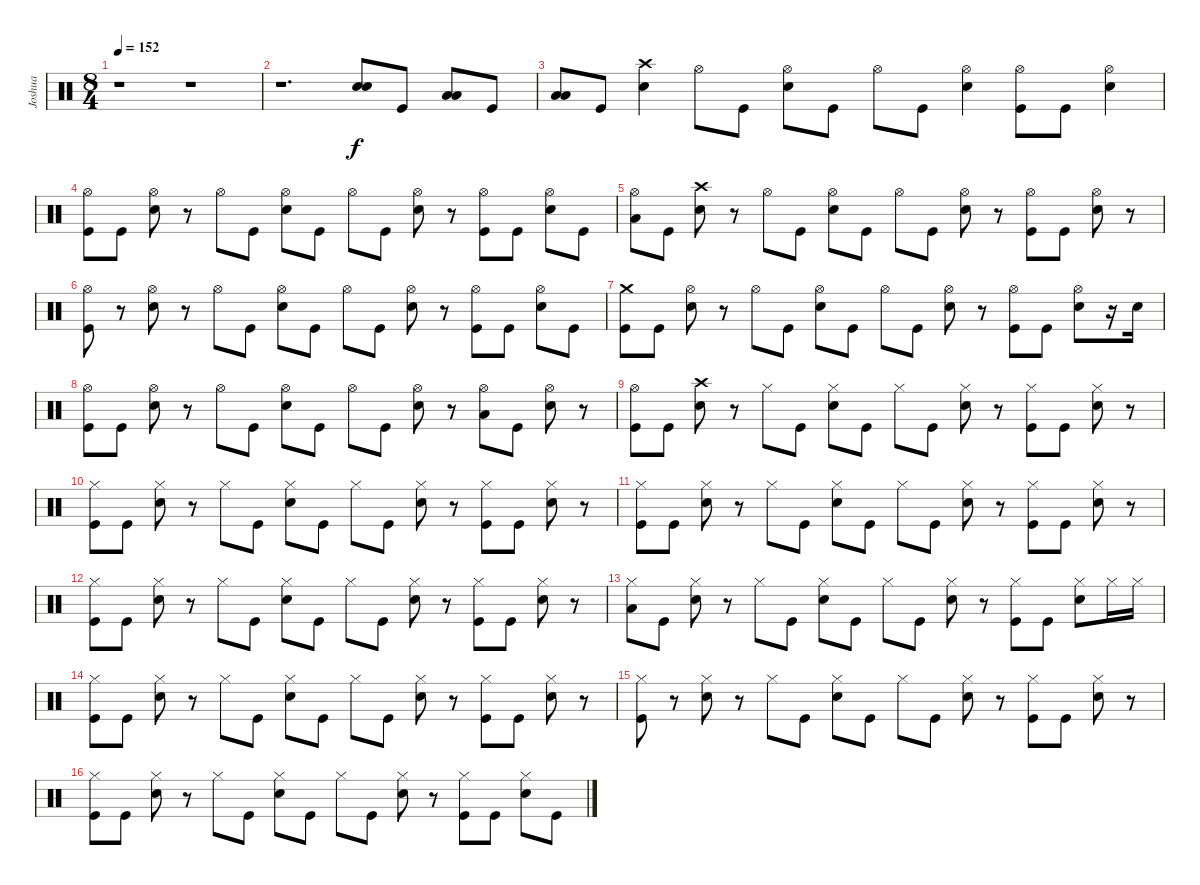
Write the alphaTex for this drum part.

\track ("Joshua" "Joshua") {instrument percussion}
\staff {score}
\articulation defaults
\ts (8 4)
\tempo 152
\clef neutral
\ks c
r.1{dy f} r.1 |
r.1{d} ("Electric Snare (hit)" "Electric Snare (hit)").8 "Kick (hit)".8 ("Low Tom (hit)" "Low Tom (hit)").8 "Kick (hit)".8 |
("Low Floor Tom (hit)" "Low Floor Tom (hit)").8 "Kick (hit)".8 ("Crash high (hit)" "Electric Snare (hit)").4 "Hi-Hat (open)".8 "Kick (hit)".8 ("Hi-Hat (open)" "Electric Snare (hit)").8 "Kick (hit)".8 "Hi-Hat (open)".8 "Kick (hit)".8 ("Hi-Hat (open)" "Electric Snare (hit)").4 ("Hi-Hat (open)" "Kick (hit)").8 "Kick (hit)".8 ("Hi-Hat (open)" "Electric Snare (hit)").4 |
("Hi-Hat (open)" "Kick (hit)").8 "Kick (hit)".8 ("Hi-Hat (open)" "Electric Snare (hit)").8 r.8 "Hi-Hat (open)".8 "Kick (hit)".8 ("Hi-Hat (open)" "Electric Snare (hit)").8 "Kick (hit)".8 "Hi-Hat (open)".8 "Kick (hit)".8 ("Hi-Hat (open)" "Electric Snare (hit)").8 r.8 ("Hi-Hat (open)" "Kick (hit)").8 "Kick (hit)".8 ("Hi-Hat (open)" "Electric Snare (hit)").8 "Kick (hit)".8 |
("Low Tom (hit)" "Hi-Hat (open)").8 "Kick (hit)".8 ("Crash high (hit)" "Electric Snare (hit)").8 r.8 "Hi-Hat (open)".8 "Kick (hit)".8 ("Hi-Hat (open)" "Electric Snare (hit)").8 "Kick (hit)".8 "Hi-Hat (open)".8 "Kick (hit)".8 ("Hi-Hat (open)" "Electric Snare (hit)").8 r.8 ("Hi-Hat (open)" "Kick (hit)").8 "Kick (hit)".8 ("Hi-Hat (open)" "Electric Snare (hit)").8 r.8 |
("Hi-Hat (open)" "Kick (hit)").8 r.8 ("Hi-Hat (open)" "Electric Snare (hit)").8 r.8 "Hi-Hat (open)".8 "Kick (hit)".8 ("Hi-Hat (open)" "Electric Snare (hit)").8 "Kick (hit)".8 "Hi-Hat (open)".8 "Kick (hit)".8 ("Hi-Hat (open)" "Electric Snare (hit)").8 r.8 ("Hi-Hat (open)" "Kick (hit)").8 "Kick (hit)".8 ("Hi-Hat (open)" "Electric Snare (hit)").8 "Kick (hit)".8 |
("Crash medium (hit)" "Kick (hit)").8 "Kick (hit)".8 ("Hi-Hat (open)" "Electric Snare (hit)").8 r.8 "Hi-Hat (open)".8 "Kick (hit)".8 ("Hi-Hat (open)" "Electric Snare (hit)").8 "Kick (hit)".8 "Hi-Hat (open)".8 "Kick (hit)".8 ("Hi-Hat (open)" "Electric Snare (hit)").8 r.8 ("Hi-Hat (open)" "Kick (hit)").8 "Kick (hit)".8 ("Hi-Hat (open)" "Electric Snare (hit)").8 r.16 "Electric Snare (hit)".16 |
("Hi-Hat (open)" "Kick (hit)").8 "Kick (hit)".8 ("Hi-Hat (open)" "Electric Snare (hit)").8 r.8 "Hi-Hat (open)".8 "Kick (hit)".8 ("Hi-Hat (open)" "Electric Snare (hit)").8 "Kick (hit)".8 "Hi-Hat (open)".8 "Kick (hit)".8 ("Hi-Hat (open)" "Electric Snare (hit)").8 r.8 ("Low Tom (hit)" "Hi-Hat (open)").8 "Kick (hit)".8 ("Hi-Hat (open)" "Electric Snare (hit)").8 r.8 |
("Hi-Hat (open)" "Kick (hit)").8 "Kick (hit)".8 ("Crash high (hit)" "Electric Snare (hit)").8 r.8 "Hi-Hat (closed)".8 "Kick (hit)".8 ("Hi-Hat (closed)" "Electric Snare (hit)").8 "Kick (hit)".8 "Hi-Hat (closed)".8 "Kick (hit)".8 ("Hi-Hat (closed)" "Electric Snare (hit)").8 r.8 ("Hi-Hat (closed)" "Kick (hit)").8 "Kick (hit)".8 ("Hi-Hat (closed)" "Electric Snare (hit)").8 r.8 |
("Hi-Hat (closed)" "Kick (hit)").8 "Kick (hit)".8 ("Hi-Hat (closed)" "Electric Snare (hit)").8 r.8 "Hi-Hat (closed)".8 "Kick (hit)".8 ("Hi-Hat (closed)" "Electric Snare (hit)").8 "Kick (hit)".8 "Hi-Hat (closed)".8 "Kick (hit)".8 ("Hi-Hat (closed)" "Electric Snare (hit)").8 r.8 ("Hi-Hat (closed)" "Kick (hit)").8 "Kick (hit)".8 ("Hi-Hat (closed)" "Electric Snare (hit)").8 r.8 |
("Hi-Hat (closed)" "Kick (hit)").8 "Kick (hit)".8 ("Hi-Hat (closed)" "Electric Snare (hit)").8 r.8 "Hi-Hat (closed)".8 "Kick (hit)".8 ("Hi-Hat (closed)" "Electric Snare (hit)").8 "Kick (hit)".8 "Hi-Hat (closed)".8 "Kick (hit)".8 ("Hi-Hat (closed)" "Electric Snare (hit)").8 r.8 ("Hi-Hat (closed)" "Kick (hit)").8 "Kick (hit)".8 ("Hi-Hat (closed)" "Electric Snare (hit)").8 r.8 |
("Hi-Hat (closed)" "Kick (hit)").8 "Kick (hit)".8 ("Hi-Hat (closed)" "Electric Snare (hit)").8 r.8 "Hi-Hat (closed)".8 "Kick (hit)".8 ("Hi-Hat (closed)" "Electric Snare (hit)").8 "Kick (hit)".8 "Hi-Hat (closed)".8 "Kick (hit)".8 ("Hi-Hat (closed)" "Electric Snare (hit)").8 r.8 ("Hi-Hat (closed)" "Kick (hit)").8 "Kick (hit)".8 ("Hi-Hat (closed)" "Electric Snare (hit)").8 r.8 |
("Low Tom (hit)" "Hi-Hat (closed)").8 "Kick (hit)".8 ("Hi-Hat (closed)" "Electric Snare (hit)").8 r.8 "Hi-Hat (closed)".8 "Kick (hit)".8 ("Hi-Hat (closed)" "Electric Snare (hit)").8 "Kick (hit)".8 "Hi-Hat (closed)".8 "Kick (hit)".8 ("Hi-Hat (closed)" "Electric Snare (hit)").8 r.8 ("Hi-Hat (closed)" "Kick (hit)").8 "Kick (hit)".8 ("Hi-Hat (closed)" "Electric Snare (hit)").8 "Hi-Hat (closed)".16 "Hi-Hat (closed)".16 |
("Hi-Hat (closed)" "Kick (hit)").8 "Kick (hit)".8 ("Hi-Hat (closed)" "Electric Snare (hit)").8 r.8 "Hi-Hat (closed)".8 "Kick (hit)".8 ("Hi-Hat (closed)" "Electric Snare (hit)").8 "Kick (hit)".8 "Hi-Hat (closed)".8 "Kick (hit)".8 ("Hi-Hat (closed)" "Electric Snare (hit)").8 r.8 ("Hi-Hat (closed)" "Kick (hit)").8 "Kick (hit)".8 ("Hi-Hat (closed)" "Electric Snare (hit)").8 r.8 |
("Hi-Hat (closed)" "Kick (hit)").8 r.8 ("Hi-Hat (closed)" "Electric Snare (hit)").8 r.8 "Hi-Hat (closed)".8 "Kick (hit)".8 ("Hi-Hat (closed)" "Electric Snare (hit)").8 "Kick (hit)".8 "Hi-Hat (closed)".8 "Kick (hit)".8 ("Hi-Hat (closed)" "Electric Snare (hit)").8 r.8 ("Hi-Hat (closed)" "Kick (hit)").8 "Kick (hit)".8 ("Hi-Hat (closed)" "Electric Snare (hit)").8 r.8 |
("Hi-Hat (closed)" "Kick (hit)").8 "Kick (hit)".8 ("Hi-Hat (closed)" "Electric Snare (hit)").8 r.8 "Hi-Hat (closed)".8 "Kick (hit)".8 ("Hi-Hat (closed)" "Electric Snare (hit)").8 "Kick (hit)".8 "Hi-Hat (closed)".8 "Kick (hit)".8 ("Hi-Hat (closed)" "Electric Snare (hit)").8 r.8 ("Hi-Hat (closed)" "Kick (hit)").8 "Kick (hit)".8 ("Hi-Hat (closed)" "Electric Snare (hit)").8 "Kick (hit)".8
